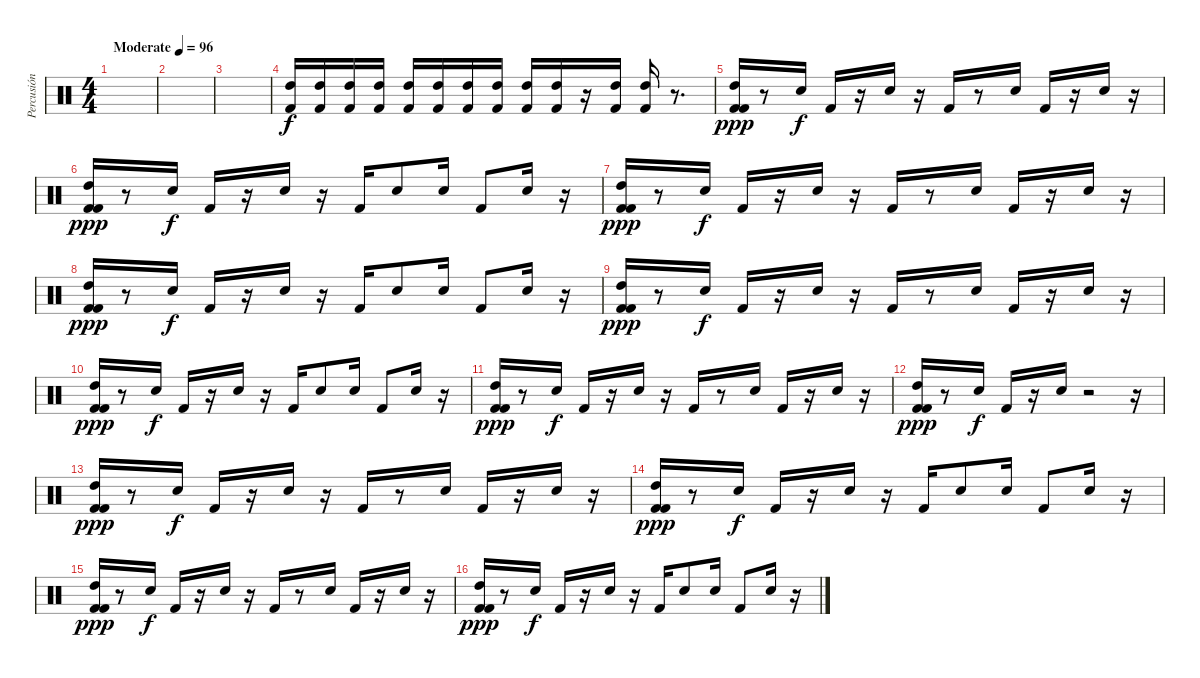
\track ("Percusión" "Percusión") {instrument percussion}
\staff {score}
\articulation defaults
\ts (4 4)
\tempo (96 "Moderate")
\clef neutral
\ks c
|
|
|
("High Tom (hit)" "Kick (hit) 2").16 ("High Tom (hit)" "Kick (hit) 2").16 ("High Tom (hit)" "Kick (hit) 2").16 ("High Tom (hit)" "Kick (hit) 2").16 ("High Tom (hit)" "Kick (hit) 2").16 ("High Tom (hit)" "Kick (hit) 2").16 ("High Tom (hit)" "Kick (hit) 2").16 ("High Tom (hit)" "Kick (hit) 2").16 ("High Tom (hit)" "Kick (hit) 2").16 ("High Tom (hit)" "Kick (hit) 2").16 r.16 ("High Tom (hit)" "Kick (hit) 2").16{dy f} ("High Tom (hit)" "Kick (hit) 2").16 r.8{d} |
("Kick (hit) 2" "High Tom (hit)" "Kick (hit) 2").16{dy ppp} r.8 "Snare (hit) 2".16{dy f} "Kick (hit) 2".16 r.16 "Snare (hit) 2".16 r.16 "Kick (hit) 2".16 r.8 "Snare (hit) 2".16 "Kick (hit) 2".16 r.16 "Snare (hit) 2".16 r.16 |
("Kick (hit) 2" "High Tom (hit)" "Kick (hit) 2").16{dy ppp} r.8 "Snare (hit) 2".16{dy f} "Kick (hit) 2".16 r.16 "Snare (hit) 2".16 r.16 "Kick (hit) 2".16 "Snare (hit) 2".8 "Snare (hit) 2".16 "Kick (hit) 2".8 "Snare (hit) 2".16 r.16 |
("Kick (hit) 2" "High Tom (hit)" "Kick (hit) 2").16{dy ppp} r.8 "Snare (hit) 2".16{dy f} "Kick (hit) 2".16 r.16 "Snare (hit) 2".16 r.16 "Kick (hit) 2".16 r.8 "Snare (hit) 2".16 "Kick (hit) 2".16 r.16 "Snare (hit) 2".16 r.16 |
("Kick (hit) 2" "High Tom (hit)" "Kick (hit) 2").16{dy ppp} r.8 "Snare (hit) 2".16{dy f} "Kick (hit) 2".16 r.16 "Snare (hit) 2".16 r.16 "Kick (hit) 2".16 "Snare (hit) 2".8 "Snare (hit) 2".16 "Kick (hit) 2".8 "Snare (hit) 2".16 r.16 |
("Kick (hit) 2" "High Tom (hit)" "Kick (hit) 2").16{dy ppp} r.8 "Snare (hit) 2".16{dy f} "Kick (hit) 2".16 r.16 "Snare (hit) 2".16 r.16 "Kick (hit) 2".16 r.8 "Snare (hit) 2".16 "Kick (hit) 2".16 r.16 "Snare (hit) 2".16 r.16 |
("Kick (hit) 2" "High Tom (hit)" "Kick (hit) 2").16{dy ppp} r.8 "Snare (hit) 2".16{dy f} "Kick (hit) 2".16 r.16 "Snare (hit) 2".16 r.16 "Kick (hit) 2".16 "Snare (hit) 2".8 "Snare (hit) 2".16 "Kick (hit) 2".8 "Snare (hit) 2".16 r.16 |
("Kick (hit) 2" "High Tom (hit)" "Kick (hit) 2").16{dy ppp} r.8 "Snare (hit) 2".16{dy f} "Kick (hit) 2".16 r.16 "Snare (hit) 2".16 r.16 "Kick (hit) 2".16 r.8 "Snare (hit) 2".16 "Kick (hit) 2".16 r.16 "Snare (hit) 2".16 r.16 |
("Kick (hit) 2" "High Tom (hit)" "Kick (hit) 2").16{dy ppp} r.8 "Snare (hit) 2".16{dy f} "Kick (hit) 2".16 r.16 "Snare (hit) 2".16 r.2 r.16 |
("Kick (hit) 2" "High Tom (hit)" "Kick (hit) 2").16{dy ppp} r.8 "Snare (hit) 2".16{dy f} "Kick (hit) 2".16 r.16 "Snare (hit) 2".16 r.16 "Kick (hit) 2".16 r.8 "Snare (hit) 2".16 "Kick (hit) 2".16 r.16 "Snare (hit) 2".16 r.16 |
("Kick (hit) 2" "High Tom (hit)" "Kick (hit) 2").16{dy ppp} r.8 "Snare (hit) 2".16{dy f} "Kick (hit) 2".16 r.16 "Snare (hit) 2".16 r.16 "Kick (hit) 2".16 "Snare (hit) 2".8 "Snare (hit) 2".16 "Kick (hit) 2".8 "Snare (hit) 2".16 r.16 |
("Kick (hit) 2" "High Tom (hit)" "Kick (hit) 2").16{dy ppp} r.8 "Snare (hit) 2".16{dy f} "Kick (hit) 2".16 r.16 "Snare (hit) 2".16 r.16 "Kick (hit) 2".16 r.8 "Snare (hit) 2".16 "Kick (hit) 2".16 r.16 "Snare (hit) 2".16 r.16 |
("Kick (hit) 2" "High Tom (hit)" "Kick (hit) 2").16{dy ppp} r.8 "Snare (hit) 2".16{dy f} "Kick (hit) 2".16 r.16 "Snare (hit) 2".16 r.16 "Kick (hit) 2".16 "Snare (hit) 2".8 "Snare (hit) 2".16 "Kick (hit) 2".8 "Snare (hit) 2".16 r.16
